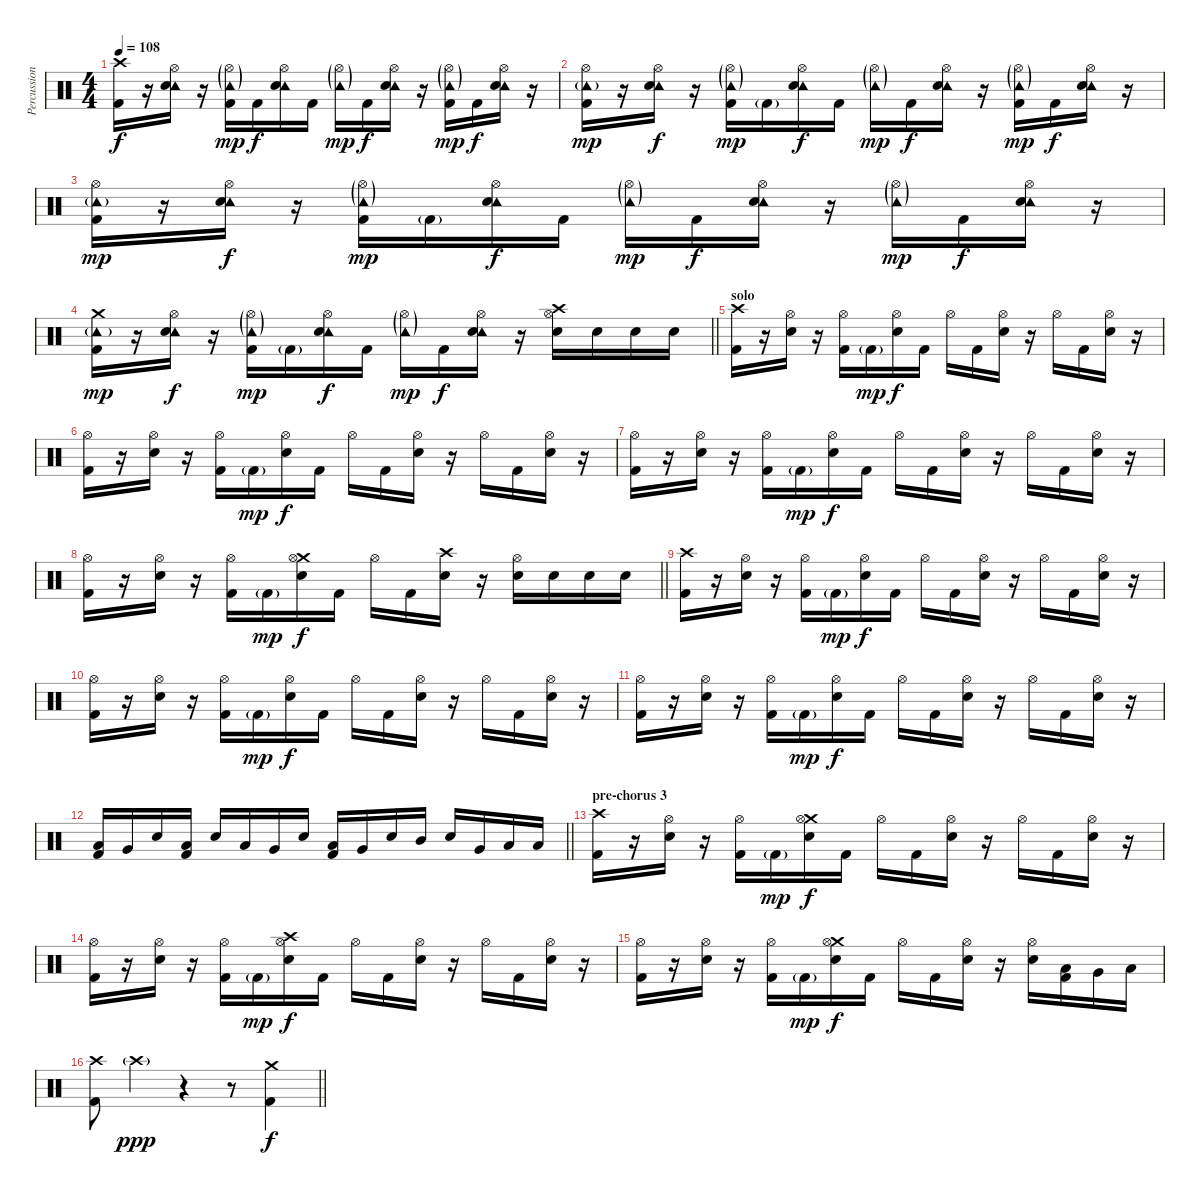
\track ("Percussion" "Percussion") {instrument percussion}
\staff {score}
\articulation defaults
\ts (4 4)
\tempo 108
\clef neutral
\ks c
("Crash high (hit)" "Kick (hit) 2").16{dy f} r.16 ("Tambourine (hit)" "Hi-Hat (open)" "Electric Snare (hit)").16 r.16 ("Tambourine (hit)"{g} "Hi-Hat (open)"{g} "Kick (hit) 2").16{dy mp} "Kick (hit) 2".16{dy f} ("Tambourine (hit)" "Hi-Hat (open)" "Electric Snare (hit)").16 "Kick (hit) 2".16 ("Tambourine (hit)"{g} "Hi-Hat (open)"{g}).16{dy mp} "Kick (hit) 2".16{dy f} ("Tambourine (hit)" "Hi-Hat (open)" "Electric Snare (hit)").16 r.16 ("Tambourine (hit)"{g} "Hi-Hat (open)"{g} "Kick (hit) 2").16{dy mp} "Kick (hit) 2".16{dy f} ("Tambourine (hit)" "Hi-Hat (open)" "Electric Snare (hit)").16 r.16 |
("Tambourine (hit)"{g} "Hi-Hat (open)" "Kick (hit) 2").16{dy mp} r.16 ("Tambourine (hit)" "Hi-Hat (open)" "Electric Snare (hit)").16{dy f} r.16 ("Tambourine (hit)"{g} "Hi-Hat (open)"{g} "Kick (hit) 2").16{dy mp} "Kick (hit) 2"{g}.16 ("Tambourine (hit)" "Hi-Hat (open)" "Electric Snare (hit)").16{dy f} "Kick (hit) 2".16 ("Tambourine (hit)"{g} "Hi-Hat (open)"{g}).16{dy mp} "Kick (hit) 2".16{dy f} ("Tambourine (hit)" "Hi-Hat (open)" "Electric Snare (hit)").16 r.16 ("Tambourine (hit)"{g} "Hi-Hat (open)"{g} "Kick (hit) 2").16{dy mp} "Kick (hit) 2".16{dy f} ("Tambourine (hit)" "Hi-Hat (open)" "Electric Snare (hit)").16 r.16 |
("Tambourine (hit)"{g} "Hi-Hat (open)" "Kick (hit) 2").16{dy mp} r.16 ("Tambourine (hit)" "Hi-Hat (open)" "Electric Snare (hit)").16{dy f} r.16 ("Tambourine (hit)"{g} "Hi-Hat (open)"{g} "Kick (hit) 2").16{dy mp} "Kick (hit) 2"{g}.16 ("Tambourine (hit)" "Hi-Hat (open)" "Electric Snare (hit)").16{dy f} "Kick (hit) 2".16 ("Tambourine (hit)"{g} "Hi-Hat (open)"{g}).16{dy mp} "Kick (hit) 2".16{dy f} ("Tambourine (hit)" "Hi-Hat (open)" "Electric Snare (hit)").16 r.16 ("Tambourine (hit)"{g} "Hi-Hat (open)"{g}).16{dy mp} "Kick (hit) 2".16{dy f} ("Tambourine (hit)" "Hi-Hat (open)" "Electric Snare (hit)").16 r.16 |
\barLineRight lightlight
("Crash medium (hit)" "Tambourine (hit)"{g} "Kick (hit) 2").16{dy mp} r.16 ("Tambourine (hit)" "Hi-Hat (open)" "Electric Snare (hit)").16{dy f} r.16 ("Tambourine (hit)"{g} "Hi-Hat (open)"{g} "Kick (hit) 2").16{dy mp} "Kick (hit) 2"{g}.16 ("Tambourine (hit)" "Hi-Hat (open)" "Electric Snare (hit)").16{dy f} "Kick (hit) 2".16 ("Tambourine (hit)"{g} "Hi-Hat (open)"{g}).16{dy mp} "Kick (hit) 2".16{dy f} ("Tambourine (hit)" "Hi-Hat (open)" "Electric Snare (hit)").16 r.16 ("Crash high (hit)" "Hi-Hat (open)" "Electric Snare (hit)").16 "Electric Snare (hit)".16 "Electric Snare (hit)".16 "Electric Snare (hit)".16 |
\section ("" "solo")
("Crash high (hit)" "Kick (hit) 2").16 r.16 ("Hi-Hat (open)" "Electric Snare (hit)").16 r.16 ("Hi-Hat (open)" "Kick (hit) 2").16 "Kick (hit) 2"{g}.16{dy mp} ("Hi-Hat (open)" "Electric Snare (hit)").16{dy f} "Kick (hit) 2".16 "Hi-Hat (open)".16 "Kick (hit) 2".16 ("Hi-Hat (open)" "Electric Snare (hit)").16 r.16 "Hi-Hat (open)".16 "Kick (hit) 2".16 ("Hi-Hat (open)" "Electric Snare (hit)").16 r.16 |
("Hi-Hat (open)" "Kick (hit) 2").16 r.16 ("Hi-Hat (open)" "Electric Snare (hit)").16 r.16 ("Hi-Hat (open)" "Kick (hit) 2").16 "Kick (hit) 2"{g}.16{dy mp} ("Hi-Hat (open)" "Electric Snare (hit)").16{dy f} "Kick (hit) 2".16 "Hi-Hat (open)".16 "Kick (hit) 2".16 ("Hi-Hat (open)" "Electric Snare (hit)").16 r.16 "Hi-Hat (open)".16 "Kick (hit) 2".16 ("Hi-Hat (open)" "Electric Snare (hit)").16 r.16 |
("Hi-Hat (open)" "Kick (hit) 2").16 r.16 ("Hi-Hat (open)" "Electric Snare (hit)").16 r.16 ("Hi-Hat (open)" "Kick (hit) 2").16 "Kick (hit) 2"{g}.16{dy mp} ("Hi-Hat (open)" "Electric Snare (hit)").16{dy f} "Kick (hit) 2".16 "Hi-Hat (open)".16 "Kick (hit) 2".16 ("Hi-Hat (open)" "Electric Snare (hit)").16 r.16 "Hi-Hat (open)".16 "Kick (hit) 2".16 ("Hi-Hat (open)" "Electric Snare (hit)").16 r.16 |
\barLineRight lightlight
("Hi-Hat (open)" "Kick (hit) 2").16 r.16 ("Hi-Hat (open)" "Electric Snare (hit)").16 r.16 ("Hi-Hat (open)" "Kick (hit) 2").16 "Kick (hit) 2"{g}.16{dy mp} ("Crash medium (hit)" "Hi-Hat (open)" "Electric Snare (hit)").16{dy f} "Kick (hit) 2".16 "Hi-Hat (open)".16 "Kick (hit) 2".16 ("Crash high (hit)" "Electric Snare (hit)").16 r.16 ("Hi-Hat (open)" "Electric Snare (hit)").16 "Electric Snare (hit)".16 "Electric Snare (hit)".16 "Electric Snare (hit)".16 |
("Crash high (hit)" "Kick (hit) 2").16 r.16 ("Hi-Hat (open)" "Electric Snare (hit)").16 r.16 ("Hi-Hat (open)" "Kick (hit) 2").16 "Kick (hit) 2"{g}.16{dy mp} ("Hi-Hat (open)" "Electric Snare (hit)").16{dy f} "Kick (hit) 2".16 "Hi-Hat (open)".16 "Kick (hit) 2".16 ("Hi-Hat (open)" "Electric Snare (hit)").16 r.16 "Hi-Hat (open)".16 "Kick (hit) 2".16 ("Hi-Hat (open)" "Electric Snare (hit)").16 r.16 |
("Hi-Hat (open)" "Kick (hit) 2").16 r.16 ("Hi-Hat (open)" "Electric Snare (hit)").16 r.16 ("Hi-Hat (open)" "Kick (hit) 2").16 "Kick (hit) 2"{g}.16{dy mp} ("Hi-Hat (open)" "Electric Snare (hit)").16{dy f} "Kick (hit) 2".16 "Hi-Hat (open)".16 "Kick (hit) 2".16 ("Hi-Hat (open)" "Electric Snare (hit)").16 r.16 "Hi-Hat (open)".16 "Kick (hit) 2".16 ("Hi-Hat (open)" "Electric Snare (hit)").16 r.16 |
("Hi-Hat (open)" "Kick (hit) 2").16 r.16 ("Hi-Hat (open)" "Electric Snare (hit)").16 r.16 ("Hi-Hat (open)" "Kick (hit) 2").16 "Kick (hit) 2"{g}.16{dy mp} ("Hi-Hat (open)" "Electric Snare (hit)").16{dy f} "Kick (hit) 2".16 "Hi-Hat (open)".16 "Kick (hit) 2".16 ("Hi-Hat (open)" "Electric Snare (hit)").16 r.16 "Hi-Hat (open)".16 "Kick (hit) 2".16 ("Hi-Hat (open)" "Electric Snare (hit)").16 r.16 |
\barLineRight lightlight
("Low Tom (hit)" "Kick (hit) 2").16{bd 60} "Very Low Tom (hit)".16 "Electric Snare (hit)".16 ("Low Tom (hit)" "Kick (hit) 2").16{bu 60} "Electric Snare (hit)".16 "Low Tom (hit)".16 "Very Low Tom (hit)".16 "Electric Snare (hit)".16 ("Low Tom (hit)" "Kick (hit) 2").16{bd 120} "Very Low Tom (hit)".16 "Electric Snare (hit)".16 "Mid Tom (hit)".16 "Electric Snare (hit)".16 "Very Low Tom (hit)".16 "Low Tom (hit)".16 "Low Floor Tom (hit)".16 |
\section ("" "pre-chorus 3")
("Crash high (hit)" "Kick (hit) 2").16 r.16 ("Hi-Hat (open)" "Electric Snare (hit)").16 r.16 ("Hi-Hat (open)" "Kick (hit) 2").16 "Kick (hit) 2"{g}.16{dy mp} ("Crash medium (hit)" "Hi-Hat (open)" "Electric Snare (hit)").16{dy f} "Kick (hit) 2".16 "Hi-Hat (open)".16 "Kick (hit) 2".16 ("Hi-Hat (open)" "Electric Snare (hit)").16 r.16 "Hi-Hat (open)".16 "Kick (hit) 2".16 ("Hi-Hat (open)" "Electric Snare (hit)").16 r.16 |
("Hi-Hat (open)" "Kick (hit) 2").16 r.16 ("Hi-Hat (open)" "Electric Snare (hit)").16 r.16 ("Hi-Hat (open)" "Kick (hit) 2").16 "Kick (hit) 2"{g}.16{dy mp} ("Crash high (hit)" "Hi-Hat (open)" "Electric Snare (hit)").16{dy f} "Kick (hit) 2".16 "Hi-Hat (open)".16 "Kick (hit) 2".16 ("Hi-Hat (open)" "Electric Snare (hit)").16 r.16 "Hi-Hat (open)".16 "Kick (hit) 2".16 ("Hi-Hat (open)" "Electric Snare (hit)").16 r.16 |
("Hi-Hat (open)" "Kick (hit) 2").16 r.16 ("Hi-Hat (open)" "Electric Snare (hit)").16 r.16 ("Hi-Hat (open)" "Kick (hit) 2").16 "Kick (hit) 2"{g}.16{dy mp} ("Crash medium (hit)" "Hi-Hat (open)" "Electric Snare (hit)").16{dy f} "Kick (hit) 2".16 "Hi-Hat (open)".16 "Kick (hit) 2".16 ("Hi-Hat (open)" "Electric Snare (hit)").16 r.16 ("Hi-Hat (open)" "Electric Snare (hit)").16 ("Low Tom (hit)" "Kick (hit) 2").16 "Very Low Tom (hit)".16 "Low Floor Tom (hit)".16 |
\barLineRight lightlight
("Crash high (hit)" "Kick (hit) 2").8 "Crash high (hit)"{g}.4{dy ppp} r.4 r.8 ("Crash medium (hit)" "Kick (hit) 2").4{dy f}
